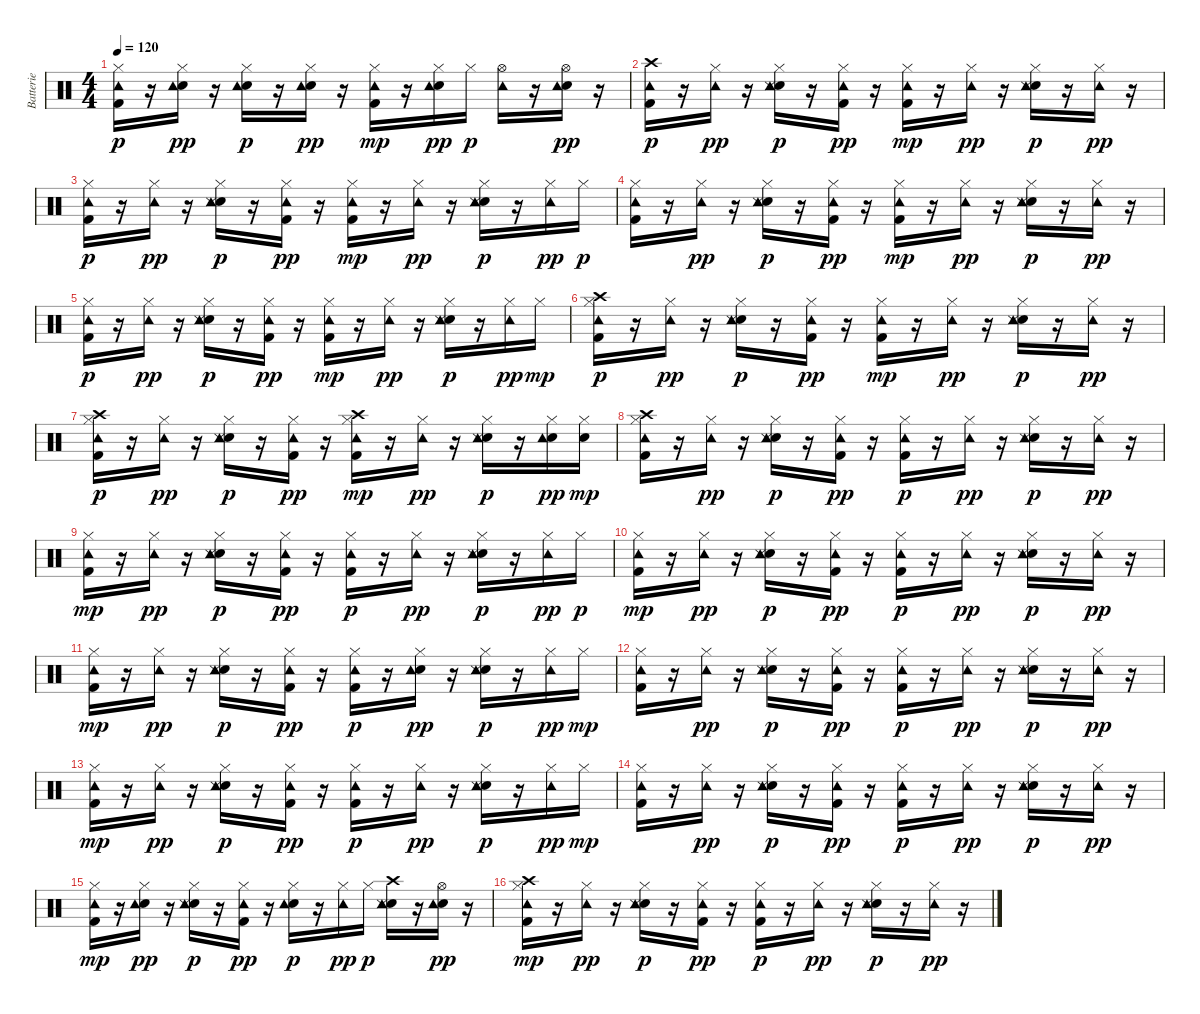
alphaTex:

\track ("Batterie" "Batterie") {instrument percussion}
\staff {score}
\articulation defaults
\ts (4 4)
\tempo 120
\clef neutral
\ks c
("Kick (hit) 2" "Hi-Hat (closed)" "Tambourine (hit)").16{dy p} r.16 ("Snare (hit) 2" "Hi-Hat (closed)" "Tambourine (hit)").16{dy pp} r.16 ("Snare (hit) 2" "Hi-Hat (closed)" "Tambourine (hit)").16{dy p} r.16 ("Snare (hit) 2" "Hi-Hat (closed)" "Tambourine (hit)").16{dy pp} r.16 ("Kick (hit) 2" "Hi-Hat (closed)" "Tambourine (hit)").16{dy mp} r.16 ("Snare (hit) 2" "Hi-Hat (closed)" "Tambourine (hit)").16{dy pp} "Hi-Hat (closed)".16{dy p} ("Hi-Hat (open)" "Tambourine (hit)").16 r.16 ("Snare (hit) 2" "Hi-Hat (open)" "Tambourine (hit)").16{dy pp} r.16 |
("Kick (hit) 2" "Crash high (hit)" "Tambourine (hit)").16{dy p} r.16 ("Hi-Hat (closed)" "Tambourine (hit)").16{dy pp} r.16 ("Snare (hit) 2" "Hi-Hat (closed)" "Snare (side stick) 3" "Tambourine (hit)").16{dy p} r.16 ("Kick (hit) 2" "Hi-Hat (closed)" "Tambourine (hit)").16{dy pp} r.16 ("Kick (hit) 2" "Hi-Hat (closed)" "Tambourine (hit)").16{dy mp} r.16 ("Hi-Hat (closed)" "Tambourine (hit)").16{dy pp} r.16 ("Snare (hit) 2" "Hi-Hat (closed)" "Snare (side stick) 3" "Tambourine (hit)").16{dy p} r.16 ("Hi-Hat (closed)" "Tambourine (hit)").16{dy pp} r.16 |
("Kick (hit) 2" "Hi-Hat (closed)" "Tambourine (hit)").16{dy p} r.16 ("Hi-Hat (closed)" "Tambourine (hit)").16{dy pp} r.16 ("Snare (hit) 2" "Hi-Hat (closed)" "Snare (side stick) 3" "Tambourine (hit)").16{dy p} r.16 ("Kick (hit) 2" "Hi-Hat (closed)" "Tambourine (hit)").16{dy pp} r.16 ("Kick (hit) 2" "Hi-Hat (closed)" "Tambourine (hit)").16{dy mp} r.16 ("Hi-Hat (closed)" "Tambourine (hit)").16{dy pp} r.16 ("Snare (hit) 2" "Hi-Hat (closed)" "Snare (side stick) 3" "Tambourine (hit)").16{dy p} r.16 ("Hi-Hat (closed)" "Tambourine (hit)").16{dy pp} "Hi-Hat (closed)".16{dy p} |
("Kick (hit) 2" "Hi-Hat (closed)" "Tambourine (hit)").16 r.16 ("Hi-Hat (closed)" "Tambourine (hit)").16{dy pp} r.16 ("Snare (hit) 2" "Hi-Hat (closed)" "Snare (side stick) 3" "Tambourine (hit)").16{dy p} r.16 ("Kick (hit) 2" "Hi-Hat (closed)" "Tambourine (hit)").16{dy pp} r.16 ("Kick (hit) 2" "Hi-Hat (closed)" "Tambourine (hit)").16{dy mp} r.16 ("Hi-Hat (closed)" "Tambourine (hit)").16{dy pp} r.16 ("Snare (hit) 2" "Hi-Hat (closed)" "Snare (side stick) 3" "Tambourine (hit)").16{dy p} r.16 ("Hi-Hat (closed)" "Tambourine (hit)").16{dy pp} r.16 |
("Kick (hit) 2" "Hi-Hat (closed)" "Tambourine (hit)").16{dy p} r.16 ("Hi-Hat (closed)" "Tambourine (hit)").16{dy pp} r.16 ("Snare (hit) 2" "Hi-Hat (closed)" "Snare (side stick) 3" "Tambourine (hit)").16{dy p} r.16 ("Kick (hit) 2" "Hi-Hat (closed)" "Tambourine (hit)").16{dy pp} r.16 ("Kick (hit) 2" "Hi-Hat (closed)" "Tambourine (hit)").16{dy mp} r.16 ("Hi-Hat (closed)" "Tambourine (hit)").16{dy pp} r.16 ("Snare (hit) 2" "Hi-Hat (closed)" "Snare (side stick) 3" "Tambourine (hit)").16{dy p} r.16 ("Hi-Hat (closed)" "Tambourine (hit)").16{dy pp} "Hi-Hat (closed)".16{dy mp} |
("Kick (hit) 2" "Hi-Hat (closed)" "Crash high (hit)" "Tambourine (hit)").16{dy p} r.16 ("Hi-Hat (closed)" "Tambourine (hit)").16{dy pp} r.16 ("Snare (hit) 2" "Hi-Hat (closed)" "Snare (side stick) 3" "Tambourine (hit)").16{dy p} r.16 ("Kick (hit) 2" "Hi-Hat (closed)" "Tambourine (hit)").16{dy pp} r.16 ("Kick (hit) 2" "Hi-Hat (closed)" "Tambourine (hit)").16{dy mp} r.16 ("Hi-Hat (closed)" "Tambourine (hit)").16{dy pp} r.16 ("Snare (hit) 2" "Hi-Hat (closed)" "Snare (side stick) 3" "Tambourine (hit)").16{dy p} r.16 ("Hi-Hat (closed)" "Tambourine (hit)").16{dy pp} r.16 |
("Kick (hit) 2" "Hi-Hat (closed)" "Crash high (hit)" "Tambourine (hit)").16{dy p} r.16 ("Hi-Hat (closed)" "Tambourine (hit)").16{dy pp} r.16 ("Snare (hit) 2" "Hi-Hat (closed)" "Snare (side stick) 3" "Tambourine (hit)").16{dy p} r.16 ("Kick (hit) 2" "Hi-Hat (closed)" "Tambourine (hit)").16{dy pp} r.16 ("Kick (hit) 2" "Hi-Hat (closed)" "Crash high (hit)" "Tambourine (hit)").16{dy mp} r.16 ("Hi-Hat (closed)" "Tambourine (hit)").16{dy pp} r.16 ("Snare (hit) 2" "Hi-Hat (closed)" "Snare (side stick) 3" "Tambourine (hit)").16{dy p} r.16 ("Snare (hit) 2" "Hi-Hat (closed)" "Tambourine (hit)").16{dy pp} ("Snare (hit) 2" "Hi-Hat (closed)").16{dy mp} |
("Kick (hit) 2" "Hi-Hat (closed)" "Crash high (hit)" "Tambourine (hit)").16 r.16 ("Hi-Hat (closed)" "Tambourine (hit)").16{dy pp} r.16 ("Snare (hit) 2" "Hi-Hat (closed)" "Snare (side stick) 3" "Tambourine (hit)").16{dy p} r.16 ("Kick (hit) 2" "Hi-Hat (closed)" "Tambourine (hit)").16{dy pp} r.16 ("Kick (hit) 2" "Hi-Hat (closed)" "Tambourine (hit)").16{dy p} r.16 ("Hi-Hat (closed)" "Tambourine (hit)").16{dy pp} r.16 ("Snare (hit) 2" "Hi-Hat (closed)" "Snare (side stick) 3" "Tambourine (hit)").16{dy p} r.16 ("Hi-Hat (closed)" "Tambourine (hit)").16{dy pp} r.16 |
("Kick (hit) 2" "Hi-Hat (closed)" "Tambourine (hit)").16{dy mp} r.16 ("Hi-Hat (closed)" "Tambourine (hit)").16{dy pp} r.16 ("Snare (hit) 2" "Hi-Hat (closed)" "Snare (side stick) 3" "Tambourine (hit)").16{dy p} r.16 ("Kick (hit) 2" "Hi-Hat (closed)" "Tambourine (hit)").16{dy pp} r.16 ("Kick (hit) 2" "Hi-Hat (closed)" "Tambourine (hit)").16{dy p} r.16 ("Hi-Hat (closed)" "Tambourine (hit)").16{dy pp} r.16 ("Snare (hit) 2" "Hi-Hat (closed)" "Snare (side stick) 3" "Tambourine (hit)").16{dy p} r.16 ("Hi-Hat (closed)" "Tambourine (hit)").16{dy pp} "Hi-Hat (closed)".16{dy p} |
("Kick (hit) 2" "Hi-Hat (closed)" "Tambourine (hit)").16{dy mp} r.16 ("Hi-Hat (closed)" "Tambourine (hit)").16{dy pp} r.16 ("Snare (hit) 2" "Hi-Hat (closed)" "Snare (side stick) 3" "Tambourine (hit)").16{dy p} r.16 ("Kick (hit) 2" "Hi-Hat (closed)" "Tambourine (hit)").16{dy pp} r.16 ("Kick (hit) 2" "Hi-Hat (closed)" "Tambourine (hit)").16{dy p} r.16 ("Hi-Hat (closed)" "Tambourine (hit)").16{dy pp} r.16 ("Snare (hit) 2" "Hi-Hat (closed)" "Snare (side stick) 3" "Tambourine (hit)").16{dy p} r.16 ("Hi-Hat (closed)" "Tambourine (hit)").16{dy pp} r.16 |
("Kick (hit) 2" "Hi-Hat (closed)" "Tambourine (hit)").16{dy mp} r.16 ("Hi-Hat (closed)" "Tambourine (hit)").16{dy pp} r.16 ("Snare (hit) 2" "Hi-Hat (closed)" "Snare (side stick) 3" "Tambourine (hit)").16{dy p} r.16 ("Kick (hit) 2" "Hi-Hat (closed)" "Tambourine (hit)").16{dy pp} r.16 ("Kick (hit) 2" "Hi-Hat (closed)" "Tambourine (hit)").16{dy p} r.16 ("Snare (hit) 2" "Hi-Hat (closed)" "Tambourine (hit)").16{dy pp} r.16 ("Snare (hit) 2" "Hi-Hat (closed)" "Snare (side stick) 3" "Tambourine (hit)").16{dy p} r.16 ("Hi-Hat (closed)" "Tambourine (hit)").16{dy pp} "Hi-Hat (closed)".16{dy mp} |
("Kick (hit) 2" "Hi-Hat (closed)" "Tambourine (hit)").16 r.16 ("Hi-Hat (closed)" "Tambourine (hit)").16{dy pp} r.16 ("Snare (hit) 2" "Hi-Hat (closed)" "Snare (side stick) 3" "Tambourine (hit)").16{dy p} r.16 ("Kick (hit) 2" "Hi-Hat (closed)" "Tambourine (hit)").16{dy pp} r.16 ("Kick (hit) 2" "Hi-Hat (closed)" "Tambourine (hit)").16{dy p} r.16 ("Hi-Hat (closed)" "Tambourine (hit)").16{dy pp} r.16 ("Snare (hit) 2" "Hi-Hat (closed)" "Snare (side stick) 3" "Tambourine (hit)").16{dy p} r.16 ("Hi-Hat (closed)" "Tambourine (hit)").16{dy pp} r.16 |
("Kick (hit) 2" "Hi-Hat (closed)" "Tambourine (hit)").16{dy mp} r.16 ("Hi-Hat (closed)" "Tambourine (hit)").16{dy pp} r.16 ("Snare (hit) 2" "Hi-Hat (closed)" "Snare (side stick) 3" "Tambourine (hit)").16{dy p} r.16 ("Kick (hit) 2" "Hi-Hat (closed)" "Tambourine (hit)").16{dy pp} r.16 ("Kick (hit) 2" "Hi-Hat (closed)" "Tambourine (hit)").16{dy p} r.16 ("Hi-Hat (closed)" "Tambourine (hit)").16{dy pp} r.16 ("Snare (hit) 2" "Hi-Hat (closed)" "Snare (side stick) 3" "Tambourine (hit)").16{dy p} r.16 ("Hi-Hat (closed)" "Tambourine (hit)").16{dy pp} "Hi-Hat (closed)".16{dy mp} |
("Kick (hit) 2" "Hi-Hat (closed)" "Tambourine (hit)").16 r.16 ("Hi-Hat (closed)" "Tambourine (hit)").16{dy pp} r.16 ("Snare (hit) 2" "Hi-Hat (closed)" "Snare (side stick) 3" "Tambourine (hit)").16{dy p} r.16 ("Kick (hit) 2" "Hi-Hat (closed)" "Tambourine (hit)").16{dy pp} r.16 ("Kick (hit) 2" "Hi-Hat (closed)" "Tambourine (hit)").16{dy p} r.16 ("Hi-Hat (closed)" "Tambourine (hit)").16{dy pp} r.16 ("Snare (hit) 2" "Hi-Hat (closed)" "Snare (side stick) 3" "Tambourine (hit)").16{dy p} r.16 ("Hi-Hat (closed)" "Tambourine (hit)").16{dy pp} r.16 |
("Kick (hit) 2" "Hi-Hat (closed)" "Tambourine (hit)").16{dy mp} r.16 ("Snare (hit) 2" "Hi-Hat (closed)" "Tambourine (hit)").16{dy pp} r.16 ("Snare (hit) 2" "Hi-Hat (closed)" "Snare (side stick) 3" "Tambourine (hit)").16{dy p} r.16 ("Kick (hit) 2" "Hi-Hat (closed)" "Tambourine (hit)").16{dy pp} r.16 ("Snare (hit) 2" "Hi-Hat (closed)" "Tambourine (hit)").16{dy p} r.16 ("Hi-Hat (closed)" "Tambourine (hit)").16{dy pp} "Hi-Hat (closed)".16{dy p} ("Snare (hit) 2" "Crash high (hit)" "Snare (side stick) 3" "Tambourine (hit)").16 r.16 ("Snare (hit) 2" "Hi-Hat (open)" "Tambourine (hit)").16{dy pp} r.16 |
("Kick (hit) 2" "Hi-Hat (closed)" "Crash high (hit)" "Tambourine (hit)").16{dy mp} r.16 ("Hi-Hat (closed)" "Tambourine (hit)").16{dy pp} r.16 ("Snare (hit) 2" "Hi-Hat (closed)" "Snare (side stick) 3" "Tambourine (hit)").16{dy p} r.16 ("Kick (hit) 2" "Hi-Hat (closed)" "Tambourine (hit)").16{dy pp} r.16 ("Kick (hit) 2" "Hi-Hat (closed)" "Tambourine (hit)").16{dy p} r.16 ("Hi-Hat (closed)" "Tambourine (hit)").16{dy pp} r.16 ("Snare (hit) 2" "Hi-Hat (closed)" "Snare (side stick) 3" "Tambourine (hit)").16{dy p} r.16 ("Hi-Hat (closed)" "Tambourine (hit)").16{dy pp} r.16
